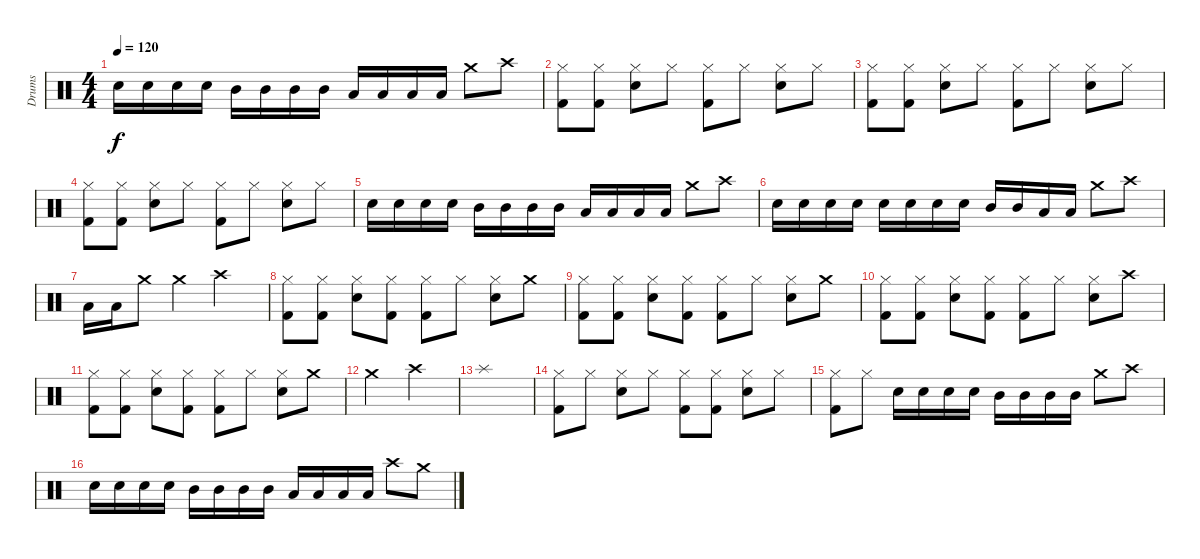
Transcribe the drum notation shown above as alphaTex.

\track ("Drums" "Drums") {instrument percussion}
\staff {score}
\articulation defaults
\ts (4 4)
\tempo 120
\clef neutral
\ks c "Snare (hit) 2".16{dy f} "Snare (hit) 2".16 "Snare (hit) 2".16 "Snare (hit) 2".16 "Mid Tom (hit)".16 "Mid Tom (hit)".16 "Mid Tom (hit)".16 "Mid Tom (hit)".16 "Low Tom (hit)".16 "Low Tom (hit)".16 "Low Tom (hit)".16 "Low Tom (hit)".16 "Crash medium (hit)".8 "Crash high (hit)".8
|
("Kick (hit) 2" "Hi-Hat (closed)").8 ("Kick (hit) 2" "Hi-Hat (closed)").8 ("Snare (hit) 2" "Hi-Hat (closed)").8 "Hi-Hat (closed)".8 ("Kick (hit) 2" "Hi-Hat (closed)").8 "Hi-Hat (closed)".8 ("Snare (hit) 2" "Hi-Hat (closed)").8 "Hi-Hat (closed)".8 |
("Kick (hit) 2" "Hi-Hat (closed)").8 ("Kick (hit) 2" "Hi-Hat (closed)").8 ("Snare (hit) 2" "Hi-Hat (closed)").8 "Hi-Hat (closed)".8 ("Kick (hit) 2" "Hi-Hat (closed)").8 "Hi-Hat (closed)".8 ("Snare (hit) 2" "Hi-Hat (closed)").8 "Hi-Hat (closed)".8 |
("Kick (hit) 2" "Hi-Hat (closed)").8 ("Kick (hit) 2" "Hi-Hat (closed)").8 ("Snare (hit) 2" "Hi-Hat (closed)").8 "Hi-Hat (closed)".8 ("Kick (hit) 2" "Hi-Hat (closed)").8 "Hi-Hat (closed)".8 ("Snare (hit) 2" "Hi-Hat (closed)").8 "Hi-Hat (closed)".8 |
"Snare (hit) 2".16 "Snare (hit) 2".16 "Snare (hit) 2".16 "Snare (hit) 2".16 "Mid Tom (hit)".16 "Mid Tom (hit)".16 "Mid Tom (hit)".16 "Mid Tom (hit)".16 "Low Tom (hit)".16 "Low Tom (hit)".16 "Low Tom (hit)".16 "Low Tom (hit)".16 "Crash medium (hit)".8 "Crash high (hit)".8 |
"Snare (hit) 2".16 "Snare (hit) 2".16 "Snare (hit) 2".16 "Snare (hit) 2".16 "Snare (hit) 2".16 "Snare (hit) 2".16 "Snare (hit) 2".16 "Snare (hit) 2".16 "Mid Tom (hit)".16 "Mid Tom (hit)".16 "Low Tom (hit)".16 "Low Tom (hit)".16 "Crash medium (hit)".8 "Crash high (hit)".8 |
"Low Tom (hit)".16 "Low Tom (hit)".16 "Crash medium (hit)".8 "Crash medium (hit)".4 "Crash high (hit)".2 |
("Kick (hit) 2" "Hi-Hat (closed)").8 ("Kick (hit) 2" "Hi-Hat (closed)").8 ("Snare (hit) 2" "Hi-Hat (closed)").8 ("Kick (hit) 2" "Hi-Hat (closed)").8 ("Kick (hit) 2" "Hi-Hat (closed)").8 "Hi-Hat (closed)".8 ("Snare (hit) 2" "Hi-Hat (closed)").8 "Crash medium (hit)".8 |
("Kick (hit) 2" "Hi-Hat (closed)").8 ("Kick (hit) 2" "Hi-Hat (closed)").8 ("Snare (hit) 2" "Hi-Hat (closed)").8 ("Kick (hit) 2" "Hi-Hat (closed)").8 ("Kick (hit) 2" "Hi-Hat (closed)").8 "Hi-Hat (closed)".8 ("Snare (hit) 2" "Hi-Hat (closed)").8 "Crash medium (hit)".8 |
("Kick (hit) 2" "Hi-Hat (closed)").8 ("Kick (hit) 2" "Hi-Hat (closed)").8 ("Snare (hit) 2" "Hi-Hat (closed)").8 ("Kick (hit) 2" "Hi-Hat (closed)").8 ("Kick (hit) 2" "Hi-Hat (closed)").8 "Hi-Hat (closed)".8 ("Snare (hit) 2" "Hi-Hat (closed)").8 "Crash high (hit)".8 |
("Kick (hit) 2" "Hi-Hat (closed)").8 ("Kick (hit) 2" "Hi-Hat (closed)").8 ("Snare (hit) 2" "Hi-Hat (closed)").8 ("Kick (hit) 2" "Hi-Hat (closed)").8 ("Kick (hit) 2" "Hi-Hat (closed)").8 "Hi-Hat (closed)".8 ("Snare (hit) 2" "Hi-Hat (closed)").8 "Crash medium (hit)".8 |
"Crash medium (hit)".2 "Crash high (hit)".2 |
"Splash (hit)".1 |
("Kick (hit) 2" "Hi-Hat (closed)").8 "Hi-Hat (closed)".8 ("Snare (hit) 2" "Hi-Hat (closed)").8 "Hi-Hat (closed)".8 ("Kick (hit) 2" "Hi-Hat (closed)").8 ("Kick (hit) 2" "Hi-Hat (closed)").8 ("Snare (hit) 2" "Hi-Hat (closed)").8 "Hi-Hat (closed)".8 |
("Kick (hit) 2" "Hi-Hat (closed)").8 "Hi-Hat (closed)".8 "Snare (hit) 2".16 "Snare (hit) 2".16 "Snare (hit) 2".16 "Snare (hit) 2".16 "Mid Tom (hit)".16 "Mid Tom (hit)".16 "Mid Tom (hit)".16 "Mid Tom (hit)".16 "Crash medium (hit)".8 "Crash high (hit)".8 |
"Snare (hit) 2".16 "Snare (hit) 2".16 "Snare (hit) 2".16 "Snare (hit) 2".16 "Mid Tom (hit)".16 "Mid Tom (hit)".16 "Mid Tom (hit)".16 "Mid Tom (hit)".16 "Low Tom (hit)".16 "Low Tom (hit)".16 "Low Tom (hit)".16 "Low Tom (hit)".16 "Crash high (hit)".8 "Crash medium (hit)".8
